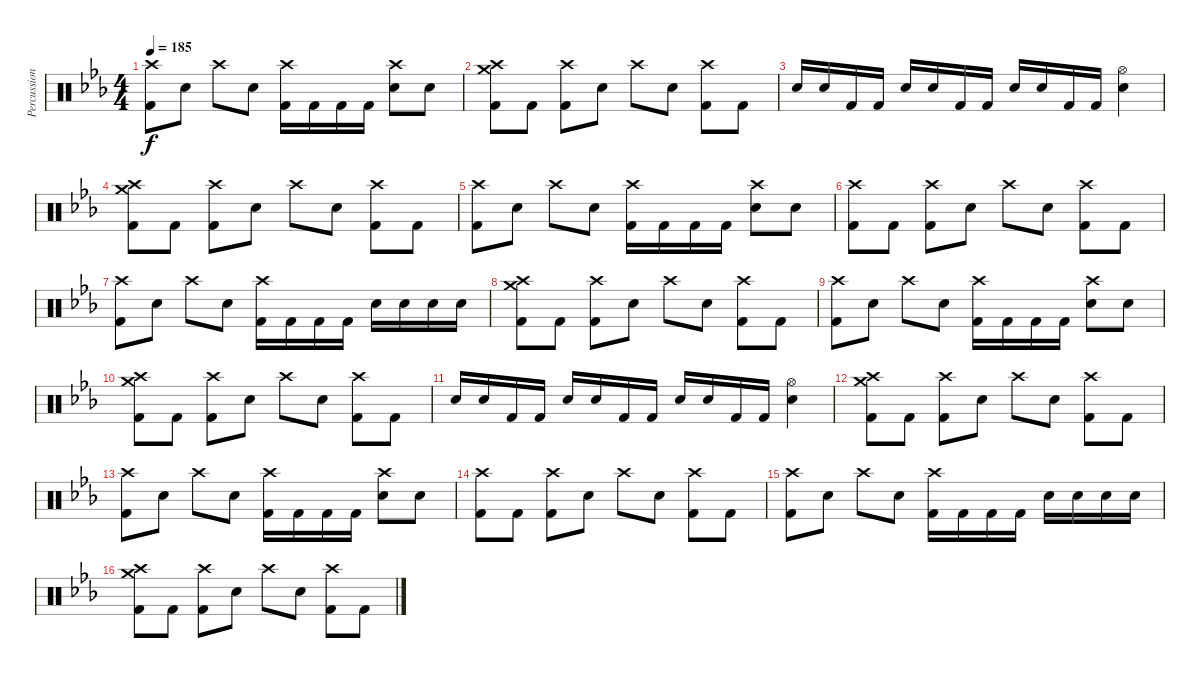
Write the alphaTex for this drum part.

\track ("Percussion" "Percussion") {instrument percussion}
\staff {score}
\articulation defaults
\ts (4 4)
\tempo 185
\clef neutral
\ks cminor
("Crash high (hit)" "Kick (hit) 2").8{dy f} "Electric Snare (hit)".8 "Crash high (hit)".8 "Electric Snare (hit)".8 ("Crash high (hit)" "Kick (hit) 2").16 "Kick (hit) 2".16 "Kick (hit) 2".16 "Kick (hit) 2".16 ("Crash high (hit)" "Electric Snare (hit)").8 "Electric Snare (hit)".8 |
("Crash high (hit)" "Crash medium (hit)" "Kick (hit) 2").8 "Kick (hit) 2".8 ("Crash high (hit)" "Kick (hit) 2").8 "Electric Snare (hit)".8 "Crash high (hit)".8 "Electric Snare (hit)".8 ("Crash high (hit)" "Kick (hit) 2").8 "Kick (hit) 2".8 |
"Electric Snare (hit)".16 "Electric Snare (hit)".16 "Kick (hit) 2".16 "Kick (hit) 2".16 "Electric Snare (hit)".16 "Electric Snare (hit)".16 "Kick (hit) 2".16 "Kick (hit) 2".16 "Electric Snare (hit)".16 "Electric Snare (hit)".16 "Kick (hit) 2".16 "Kick (hit) 2".16 ("Hi-Hat (open)" "Electric Snare (hit)").4 |
("Crash high (hit)" "Crash medium (hit)" "Kick (hit) 2").8 "Kick (hit) 2".8 ("Crash high (hit)" "Kick (hit) 2").8 "Electric Snare (hit)".8 "Crash high (hit)".8 "Electric Snare (hit)".8 ("Crash high (hit)" "Kick (hit) 2").8 "Kick (hit) 2".8 |
("Crash high (hit)" "Kick (hit) 2").8 "Electric Snare (hit)".8 "Crash high (hit)".8 "Electric Snare (hit)".8 ("Crash high (hit)" "Kick (hit) 2").16 "Kick (hit) 2".16 "Kick (hit) 2".16 "Kick (hit) 2".16 ("Crash high (hit)" "Electric Snare (hit)").8 "Electric Snare (hit)".8 |
("Crash high (hit)" "Kick (hit) 2").8 "Kick (hit) 2".8 ("Crash high (hit)" "Kick (hit) 2").8 "Electric Snare (hit)".8 "Crash high (hit)".8 "Electric Snare (hit)".8 ("Crash high (hit)" "Kick (hit) 2").8 "Kick (hit) 2".8 |
("Crash high (hit)" "Kick (hit) 2").8 "Electric Snare (hit)".8 "Crash high (hit)".8 "Electric Snare (hit)".8 ("Crash high (hit)" "Kick (hit) 2").16 "Kick (hit) 2".16 "Kick (hit) 2".16 "Kick (hit) 2".16 "Electric Snare (hit)".16 "Electric Snare (hit)".16 "Electric Snare (hit)".16 "Electric Snare (hit)".16 |
("Crash high (hit)" "Crash medium (hit)" "Kick (hit) 2").8 "Kick (hit) 2".8 ("Crash high (hit)" "Kick (hit) 2").8 "Electric Snare (hit)".8 "Crash high (hit)".8 "Electric Snare (hit)".8 ("Crash high (hit)" "Kick (hit) 2").8 "Kick (hit) 2".8 |
("Crash high (hit)" "Kick (hit) 2").8 "Electric Snare (hit)".8 "Crash high (hit)".8 "Electric Snare (hit)".8 ("Crash high (hit)" "Kick (hit) 2").16 "Kick (hit) 2".16 "Kick (hit) 2".16 "Kick (hit) 2".16 ("Crash high (hit)" "Electric Snare (hit)").8 "Electric Snare (hit)".8 |
("Crash high (hit)" "Crash medium (hit)" "Kick (hit) 2").8 "Kick (hit) 2".8 ("Crash high (hit)" "Kick (hit) 2").8 "Electric Snare (hit)".8 "Crash high (hit)".8 "Electric Snare (hit)".8 ("Crash high (hit)" "Kick (hit) 2").8 "Kick (hit) 2".8 |
"Electric Snare (hit)".16 "Electric Snare (hit)".16 "Kick (hit) 2".16 "Kick (hit) 2".16 "Electric Snare (hit)".16 "Electric Snare (hit)".16 "Kick (hit) 2".16 "Kick (hit) 2".16 "Electric Snare (hit)".16 "Electric Snare (hit)".16 "Kick (hit) 2".16 "Kick (hit) 2".16 ("Hi-Hat (open)" "Electric Snare (hit)").4 |
("Crash high (hit)" "Crash medium (hit)" "Kick (hit) 2").8 "Kick (hit) 2".8 ("Crash high (hit)" "Kick (hit) 2").8 "Electric Snare (hit)".8 "Crash high (hit)".8 "Electric Snare (hit)".8 ("Crash high (hit)" "Kick (hit) 2").8 "Kick (hit) 2".8 |
("Crash high (hit)" "Kick (hit) 2").8 "Electric Snare (hit)".8 "Crash high (hit)".8 "Electric Snare (hit)".8 ("Crash high (hit)" "Kick (hit) 2").16 "Kick (hit) 2".16 "Kick (hit) 2".16 "Kick (hit) 2".16 ("Crash high (hit)" "Electric Snare (hit)").8 "Electric Snare (hit)".8 |
("Crash high (hit)" "Kick (hit) 2").8 "Kick (hit) 2".8 ("Crash high (hit)" "Kick (hit) 2").8 "Electric Snare (hit)".8 "Crash high (hit)".8 "Electric Snare (hit)".8 ("Crash high (hit)" "Kick (hit) 2").8 "Kick (hit) 2".8 |
("Crash high (hit)" "Kick (hit) 2").8 "Electric Snare (hit)".8 "Crash high (hit)".8 "Electric Snare (hit)".8 ("Crash high (hit)" "Kick (hit) 2").16 "Kick (hit) 2".16 "Kick (hit) 2".16 "Kick (hit) 2".16 "Electric Snare (hit)".16 "Electric Snare (hit)".16 "Electric Snare (hit)".16 "Electric Snare (hit)".16 |
("Crash high (hit)" "Crash medium (hit)" "Kick (hit) 2").8 "Kick (hit) 2".8 ("Crash high (hit)" "Kick (hit) 2").8 "Electric Snare (hit)".8 "Crash high (hit)".8 "Electric Snare (hit)".8 ("Crash high (hit)" "Kick (hit) 2").8 "Kick (hit) 2".8
